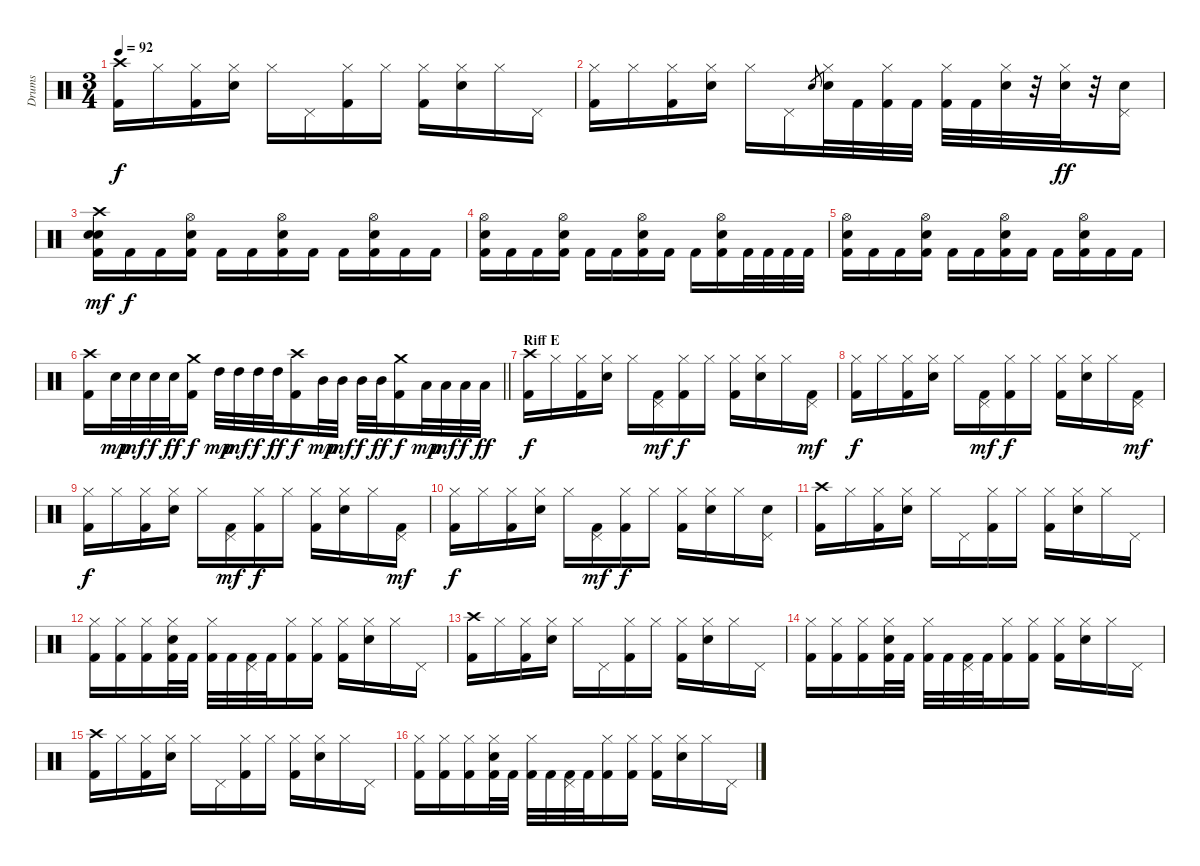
\track ("Drums" "Drums") {instrument percussion}
\staff {score}
\articulation defaults
\ts (3 4)
\tempo 92
\clef neutral
\ks c
("Crash high (hit)" "Kick (hit) 2").16{dy f} "Hi-Hat (closed)".16 ("Hi-Hat (closed)" "Kick (hit) 2").16 ("Hi-Hat (closed)" "Electric Snare (hit)").16 "Hi-Hat (closed)".16 "Pedal Hi-Hat (hit)".16 ("Hi-Hat (closed)" "Kick (hit) 2").16 "Hi-Hat (closed)".16 ("Hi-Hat (closed)" "Kick (hit) 2").16 ("Hi-Hat (closed)" "Electric Snare (hit)").16 "Hi-Hat (closed)".16 "Pedal Hi-Hat (hit)".16 |
("Hi-Hat (closed)" "Kick (hit) 2").16 "Hi-Hat (closed)".16 ("Hi-Hat (closed)" "Kick (hit) 2").16 ("Hi-Hat (closed)" "Electric Snare (hit)").16 "Hi-Hat (closed)".16 "Pedal Hi-Hat (hit)".16 "Electric Snare (hit)".8{gr} ("Hi-Hat (closed)" "Electric Snare (hit)").32 "Kick (hit) 2".32 ("Hi-Hat (closed)" "Kick (hit) 2").32 "Kick (hit) 2".32 ("Hi-Hat (closed)" "Kick (hit) 2").32 "Kick (hit) 2".32 ("Hi-Hat (closed)" "Electric Snare (hit)").32 r.32 ("Hi-Hat (closed)" "Electric Snare (hit)").32{dy ff} r.32 ("Pedal Hi-Hat (hit)" "Electric Snare (hit)").16 |
("Crash high (hit)" "Electric Snare (hit)" "Electric Snare (hit)" "Kick (hit) 2").16{dy mf} "Kick (hit) 2".16{dy f} "Kick (hit) 2".16 ("Hi-Hat (open)" "Electric Snare (hit)" "Kick (hit) 2").16 "Kick (hit) 2".16 "Kick (hit) 2".16 ("Hi-Hat (open)" "Electric Snare (hit)" "Kick (hit) 2").16 "Kick (hit) 2".16 "Kick (hit) 2".16 ("Hi-Hat (open)" "Electric Snare (hit)" "Kick (hit) 2").16 "Kick (hit) 2".16 "Kick (hit) 2".16 |
("Hi-Hat (open)" "Electric Snare (hit)" "Kick (hit) 2").16 "Kick (hit) 2".16 "Kick (hit) 2".16 ("Hi-Hat (open)" "Electric Snare (hit)" "Kick (hit) 2").16 "Kick (hit) 2".16 "Kick (hit) 2".16 ("Hi-Hat (open)" "Electric Snare (hit)" "Kick (hit) 2").16 "Kick (hit) 2".16 "Kick (hit) 2".16 ("Hi-Hat (open)" "Electric Snare (hit)" "Kick (hit) 2").16 "Kick (hit) 2".32 "Kick (hit) 2".32 "Kick (hit) 2".32 "Kick (hit) 2".32 |
("Hi-Hat (open)" "Electric Snare (hit)" "Kick (hit) 2").16 "Kick (hit) 2".16 "Kick (hit) 2".16 ("Hi-Hat (open)" "Electric Snare (hit)" "Kick (hit) 2").16 "Kick (hit) 2".16 "Kick (hit) 2".16 ("Hi-Hat (open)" "Electric Snare (hit)" "Kick (hit) 2").16 "Kick (hit) 2".16 "Kick (hit) 2".16 ("Hi-Hat (open)" "Electric Snare (hit)" "Kick (hit) 2").16 "Kick (hit) 2".16 "Kick (hit) 2".16 |
\barLineRight lightlight
("Crash high (hit)" "Kick (hit) 2").16 "Electric Snare (hit)".32{dy mp} "Electric Snare (hit)".32{dy mf} "Electric Snare (hit)".32{dy f} "Electric Snare (hit)".32{dy ff} ("Crash medium (hit)" "Kick (hit) 2").16{dy f} "High Tom (hit)".32{dy mp} "High Tom (hit)".32{dy mf} "High Tom (hit)".32{dy f} "High Tom (hit)".32{dy ff} ("Crash high (hit)" "Kick (hit) 2").16{dy f} "Mid Tom (hit)".32{dy mp} "Mid Tom (hit)".32{dy mf} "Mid Tom (hit)".32{dy f} "Mid Tom (hit)".32{dy ff} ("Crash medium (hit)" "Kick (hit) 2").16{dy f} "Low Tom (hit)".32{dy mp} "Low Tom (hit)".32{dy mf} "Low Tom (hit)".32{dy f} "Low Tom (hit)".32{dy ff} |
\section ("" "Riff E")
("Crash high (hit)" "Kick (hit) 2").16{dy f} "Hi-Hat (closed)".16 ("Hi-Hat (closed)" "Kick (hit) 2").16 ("Hi-Hat (closed)" "Electric Snare (hit)").16 "Hi-Hat (closed)".16 ("Pedal Hi-Hat (hit)" "Kick (hit) 2").16{dy mf} ("Hi-Hat (closed)" "Kick (hit) 2").16{dy f} "Hi-Hat (closed)".16 ("Hi-Hat (closed)" "Kick (hit) 2").16 ("Hi-Hat (closed)" "Electric Snare (hit)").16 "Hi-Hat (closed)".16 ("Pedal Hi-Hat (hit)" "Kick (hit) 2").16{dy mf} |
("Hi-Hat (closed)" "Kick (hit) 2").16{dy f} "Hi-Hat (closed)".16 ("Hi-Hat (closed)" "Kick (hit) 2").16 ("Hi-Hat (closed)" "Electric Snare (hit)").16 "Hi-Hat (closed)".16 ("Pedal Hi-Hat (hit)" "Kick (hit) 2").16{dy mf} ("Hi-Hat (closed)" "Kick (hit) 2").16{dy f} "Hi-Hat (closed)".16 ("Hi-Hat (closed)" "Kick (hit) 2").16 ("Hi-Hat (closed)" "Electric Snare (hit)").16 "Hi-Hat (closed)".16 ("Pedal Hi-Hat (hit)" "Kick (hit) 2").16{dy mf} |
("Hi-Hat (closed)" "Kick (hit) 2").16{dy f} "Hi-Hat (closed)".16 ("Hi-Hat (closed)" "Kick (hit) 2").16 ("Hi-Hat (closed)" "Electric Snare (hit)").16 "Hi-Hat (closed)".16 ("Pedal Hi-Hat (hit)" "Kick (hit) 2").16{dy mf} ("Hi-Hat (closed)" "Kick (hit) 2").16{dy f} "Hi-Hat (closed)".16 ("Hi-Hat (closed)" "Kick (hit) 2").16 ("Hi-Hat (closed)" "Electric Snare (hit)").16 "Hi-Hat (closed)".16 ("Pedal Hi-Hat (hit)" "Kick (hit) 2").16{dy mf} |
("Hi-Hat (closed)" "Kick (hit) 2").16{dy f} "Hi-Hat (closed)".16 ("Hi-Hat (closed)" "Kick (hit) 2").16 ("Hi-Hat (closed)" "Electric Snare (hit)").16 "Hi-Hat (closed)".16 ("Pedal Hi-Hat (hit)" "Kick (hit) 2").16{dy mf} ("Hi-Hat (closed)" "Kick (hit) 2").16{dy f} "Hi-Hat (closed)".16 ("Hi-Hat (closed)" "Kick (hit) 2").16 ("Hi-Hat (closed)" "Electric Snare (hit)").16 "Hi-Hat (closed)".16 ("Pedal Hi-Hat (hit)" "Electric Snare (hit)").16 |
("Crash high (hit)" "Kick (hit) 2").16 "Hi-Hat (closed)".16 ("Hi-Hat (closed)" "Kick (hit) 2").16 ("Hi-Hat (closed)" "Electric Snare (hit)").16 "Hi-Hat (closed)".16 "Pedal Hi-Hat (hit)".16 ("Hi-Hat (closed)" "Kick (hit) 2").16 "Hi-Hat (closed)".16 ("Hi-Hat (closed)" "Kick (hit) 2").16 ("Hi-Hat (closed)" "Electric Snare (hit)").16 "Hi-Hat (closed)".16 "Pedal Hi-Hat (hit)".16 |
("Hi-Hat (closed)" "Kick (hit) 2").16 ("Hi-Hat (closed)" "Kick (hit) 2").16 ("Hi-Hat (closed)" "Kick (hit) 2").16 ("Hi-Hat (closed)" "Electric Snare (hit)" "Kick (hit) 2").32 "Kick (hit) 2".32 ("Hi-Hat (closed)" "Kick (hit) 2").32 "Kick (hit) 2".32 ("Pedal Hi-Hat (hit)" "Kick (hit) 2").32 "Kick (hit) 2".32 ("Hi-Hat (closed)" "Kick (hit) 2").16 ("Hi-Hat (closed)" "Kick (hit) 2").16 ("Hi-Hat (closed)" "Kick (hit) 2").16 ("Hi-Hat (closed)" "Electric Snare (hit)").16 "Hi-Hat (closed)".16 "Pedal Hi-Hat (hit)".16 |
("Crash high (hit)" "Kick (hit) 2").16 "Hi-Hat (closed)".16 ("Hi-Hat (closed)" "Kick (hit) 2").16 ("Hi-Hat (closed)" "Electric Snare (hit)").16 "Hi-Hat (closed)".16 "Pedal Hi-Hat (hit)".16 ("Hi-Hat (closed)" "Kick (hit) 2").16 "Hi-Hat (closed)".16 ("Hi-Hat (closed)" "Kick (hit) 2").16 ("Hi-Hat (closed)" "Electric Snare (hit)").16 "Hi-Hat (closed)".16 "Pedal Hi-Hat (hit)".16 |
("Hi-Hat (closed)" "Kick (hit) 2").16 ("Hi-Hat (closed)" "Kick (hit) 2").16 ("Hi-Hat (closed)" "Kick (hit) 2").16 ("Hi-Hat (closed)" "Electric Snare (hit)" "Kick (hit) 2").32 "Kick (hit) 2".32 ("Hi-Hat (closed)" "Kick (hit) 2").32 "Kick (hit) 2".32 ("Pedal Hi-Hat (hit)" "Kick (hit) 2").32 "Kick (hit) 2".32 ("Hi-Hat (closed)" "Kick (hit) 2").16 ("Hi-Hat (closed)" "Kick (hit) 2").16 ("Hi-Hat (closed)" "Kick (hit) 2").16 ("Hi-Hat (closed)" "Electric Snare (hit)").16 "Hi-Hat (closed)".16 "Pedal Hi-Hat (hit)".16 |
("Crash high (hit)" "Kick (hit) 2").16 "Hi-Hat (closed)".16 ("Hi-Hat (closed)" "Kick (hit) 2").16 ("Hi-Hat (closed)" "Electric Snare (hit)").16 "Hi-Hat (closed)".16 "Pedal Hi-Hat (hit)".16 ("Hi-Hat (closed)" "Kick (hit) 2").16 "Hi-Hat (closed)".16 ("Hi-Hat (closed)" "Kick (hit) 2").16 ("Hi-Hat (closed)" "Electric Snare (hit)").16 "Hi-Hat (closed)".16 "Pedal Hi-Hat (hit)".16 |
("Hi-Hat (closed)" "Kick (hit) 2").16 ("Hi-Hat (closed)" "Kick (hit) 2").16 ("Hi-Hat (closed)" "Kick (hit) 2").16 ("Hi-Hat (closed)" "Electric Snare (hit)" "Kick (hit) 2").32 "Kick (hit) 2".32 ("Hi-Hat (closed)" "Kick (hit) 2").32 "Kick (hit) 2".32 ("Pedal Hi-Hat (hit)" "Kick (hit) 2").32 "Kick (hit) 2".32 ("Hi-Hat (closed)" "Kick (hit) 2").16 ("Hi-Hat (closed)" "Kick (hit) 2").16 ("Hi-Hat (closed)" "Kick (hit) 2").16 ("Hi-Hat (closed)" "Electric Snare (hit)").16 "Hi-Hat (closed)".16 "Pedal Hi-Hat (hit)".16
